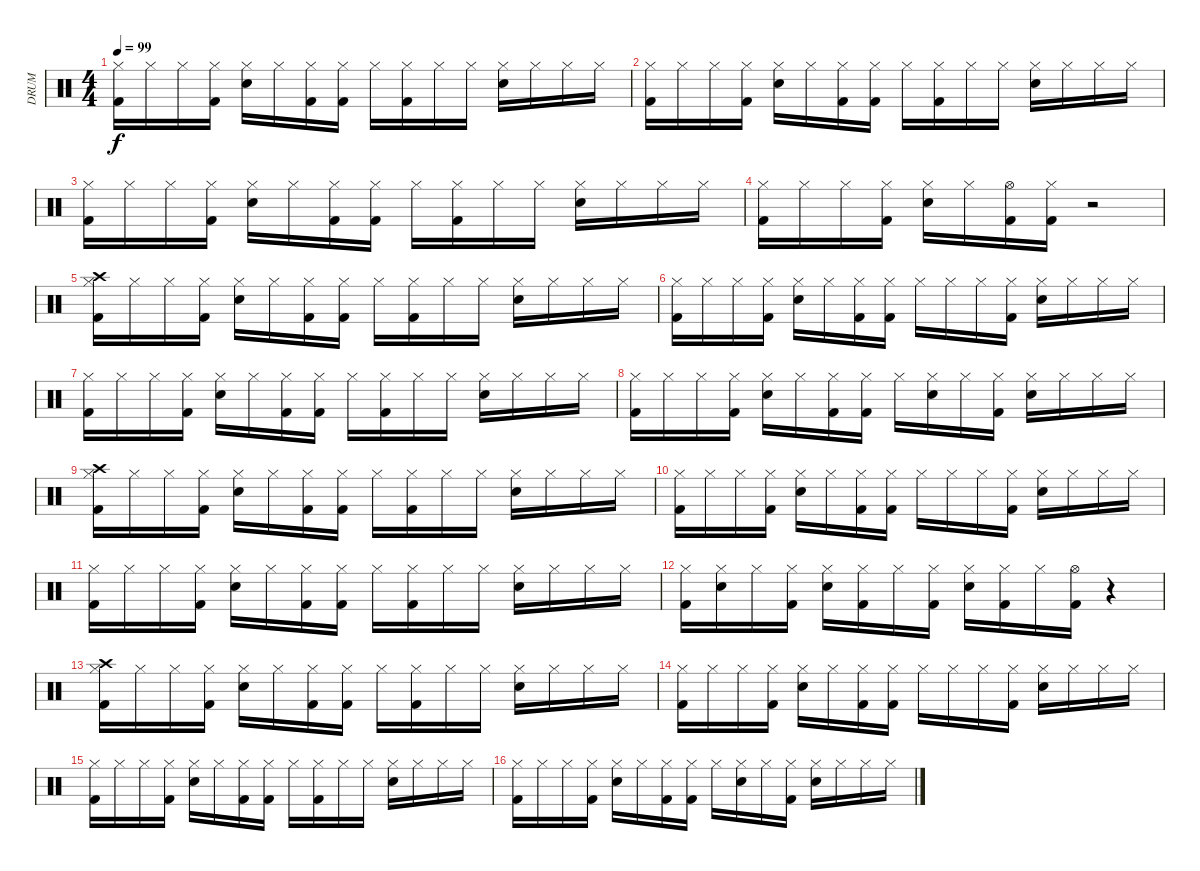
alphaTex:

\track ("DRUM" "DRUM") {instrument percussion}
\staff {score}
\articulation defaults
\ts (4 4)
\tempo 99
\clef neutral
\ks c
("Hi-Hat (closed)" "Kick (hit) 2").16{dy f} "Hi-Hat (closed)".16 "Hi-Hat (closed)".16 ("Hi-Hat (closed)" "Kick (hit) 2").16 ("Hi-Hat (closed)" "Snare (hit) 2").16 "Hi-Hat (closed)".16 ("Hi-Hat (closed)" "Kick (hit) 2").16 ("Hi-Hat (closed)" "Kick (hit) 2").16 "Hi-Hat (closed)".16 ("Hi-Hat (closed)" "Kick (hit) 2").16 "Hi-Hat (closed)".16 "Hi-Hat (closed)".16 ("Hi-Hat (closed)" "Snare (hit) 2").16 "Hi-Hat (closed)".16 "Hi-Hat (closed)".16 "Hi-Hat (closed)".16 |
("Hi-Hat (closed)" "Kick (hit) 2").16 "Hi-Hat (closed)".16 "Hi-Hat (closed)".16 ("Hi-Hat (closed)" "Kick (hit) 2").16 ("Hi-Hat (closed)" "Snare (hit) 2").16 "Hi-Hat (closed)".16 ("Hi-Hat (closed)" "Kick (hit) 2").16 ("Hi-Hat (closed)" "Kick (hit) 2").16 "Hi-Hat (closed)".16 ("Hi-Hat (closed)" "Kick (hit) 2").16 "Hi-Hat (closed)".16 "Hi-Hat (closed)".16 ("Hi-Hat (closed)" "Snare (hit) 2").16 "Hi-Hat (closed)".16 "Hi-Hat (closed)".16 "Hi-Hat (closed)".16 |
("Hi-Hat (closed)" "Kick (hit) 2").16 "Hi-Hat (closed)".16 "Hi-Hat (closed)".16 ("Hi-Hat (closed)" "Kick (hit) 2").16 ("Hi-Hat (closed)" "Snare (hit) 2").16 "Hi-Hat (closed)".16 ("Hi-Hat (closed)" "Kick (hit) 2").16 ("Hi-Hat (closed)" "Kick (hit) 2").16 "Hi-Hat (closed)".16 ("Hi-Hat (closed)" "Kick (hit) 2").16 "Hi-Hat (closed)".16 "Hi-Hat (closed)".16 ("Hi-Hat (closed)" "Snare (hit) 2").16 "Hi-Hat (closed)".16 "Hi-Hat (closed)".16 "Hi-Hat (closed)".16 |
("Hi-Hat (closed)" "Kick (hit) 2").16 "Hi-Hat (closed)".16 "Hi-Hat (closed)".16 ("Hi-Hat (closed)" "Kick (hit) 2").16 ("Hi-Hat (closed)" "Snare (hit) 2").16 "Hi-Hat (closed)".16 ("Hi-Hat (open)" "Kick (hit) 2").16 ("Hi-Hat (closed)" "Kick (hit) 2").16 r.2 |
("Crash high (hit)" "Hi-Hat (closed)" "Kick (hit) 2").16 "Hi-Hat (closed)".16 "Hi-Hat (closed)".16 ("Hi-Hat (closed)" "Kick (hit) 2").16 ("Hi-Hat (closed)" "Snare (hit) 2").16 "Hi-Hat (closed)".16 ("Hi-Hat (closed)" "Kick (hit) 2").16 ("Hi-Hat (closed)" "Kick (hit) 2").16 "Hi-Hat (closed)".16 ("Hi-Hat (closed)" "Kick (hit) 2").16 "Hi-Hat (closed)".16 "Hi-Hat (closed)".16 ("Hi-Hat (closed)" "Snare (hit) 2").16 "Hi-Hat (closed)".16 "Hi-Hat (closed)".16 "Hi-Hat (closed)".16 |
("Hi-Hat (closed)" "Kick (hit) 2").16 "Hi-Hat (closed)".16 "Hi-Hat (closed)".16 ("Hi-Hat (closed)" "Kick (hit) 2").16 ("Hi-Hat (closed)" "Snare (hit) 2").16 "Hi-Hat (closed)".16 ("Hi-Hat (closed)" "Kick (hit) 2").16 ("Hi-Hat (closed)" "Kick (hit) 2").16 "Hi-Hat (closed)".16 "Hi-Hat (closed)".16 "Hi-Hat (closed)".16 ("Hi-Hat (closed)" "Kick (hit) 2").16 ("Hi-Hat (closed)" "Snare (hit) 2").16 "Hi-Hat (closed)".16 "Hi-Hat (closed)".16 "Hi-Hat (closed)".16 |
("Hi-Hat (closed)" "Kick (hit) 2").16 "Hi-Hat (closed)".16 "Hi-Hat (closed)".16 ("Hi-Hat (closed)" "Kick (hit) 2").16 ("Hi-Hat (closed)" "Snare (hit) 2").16 "Hi-Hat (closed)".16 ("Hi-Hat (closed)" "Kick (hit) 2").16 ("Hi-Hat (closed)" "Kick (hit) 2").16 "Hi-Hat (closed)".16 ("Hi-Hat (closed)" "Kick (hit) 2").16 "Hi-Hat (closed)".16 "Hi-Hat (closed)".16 ("Hi-Hat (closed)" "Snare (hit) 2").16 "Hi-Hat (closed)".16 "Hi-Hat (closed)".16 "Hi-Hat (closed)".16 |
("Hi-Hat (closed)" "Kick (hit) 2").16 "Hi-Hat (closed)".16 "Hi-Hat (closed)".16 ("Hi-Hat (closed)" "Kick (hit) 2").16 ("Hi-Hat (closed)" "Snare (hit) 2").16 "Hi-Hat (closed)".16 ("Hi-Hat (closed)" "Kick (hit) 2").16 ("Hi-Hat (closed)" "Kick (hit) 2").16 "Hi-Hat (closed)".16 ("Hi-Hat (closed)" "Snare (hit) 2").16 "Hi-Hat (closed)".16 ("Hi-Hat (closed)" "Kick (hit) 2").16 ("Hi-Hat (closed)" "Snare (hit) 2").16 "Hi-Hat (closed)".16 "Hi-Hat (closed)".16 "Hi-Hat (closed)".16 |
("Crash high (hit)" "Hi-Hat (closed)" "Kick (hit) 2").16 "Hi-Hat (closed)".16 "Hi-Hat (closed)".16 ("Hi-Hat (closed)" "Kick (hit) 2").16 ("Hi-Hat (closed)" "Snare (hit) 2").16 "Hi-Hat (closed)".16 ("Hi-Hat (closed)" "Kick (hit) 2").16 ("Hi-Hat (closed)" "Kick (hit) 2").16 "Hi-Hat (closed)".16 ("Hi-Hat (closed)" "Kick (hit) 2").16 "Hi-Hat (closed)".16 "Hi-Hat (closed)".16 ("Hi-Hat (closed)" "Snare (hit) 2").16 "Hi-Hat (closed)".16 "Hi-Hat (closed)".16 "Hi-Hat (closed)".16 |
("Hi-Hat (closed)" "Kick (hit) 2").16 "Hi-Hat (closed)".16 "Hi-Hat (closed)".16 ("Hi-Hat (closed)" "Kick (hit) 2").16 ("Hi-Hat (closed)" "Snare (hit) 2").16 "Hi-Hat (closed)".16 ("Hi-Hat (closed)" "Kick (hit) 2").16 ("Hi-Hat (closed)" "Kick (hit) 2").16 "Hi-Hat (closed)".16 "Hi-Hat (closed)".16 "Hi-Hat (closed)".16 ("Hi-Hat (closed)" "Kick (hit) 2").16 ("Hi-Hat (closed)" "Snare (hit) 2").16 "Hi-Hat (closed)".16 "Hi-Hat (closed)".16 "Hi-Hat (closed)".16 |
("Hi-Hat (closed)" "Kick (hit) 2").16 "Hi-Hat (closed)".16 "Hi-Hat (closed)".16 ("Hi-Hat (closed)" "Kick (hit) 2").16 ("Hi-Hat (closed)" "Snare (hit) 2").16 "Hi-Hat (closed)".16 ("Hi-Hat (closed)" "Kick (hit) 2").16 ("Hi-Hat (closed)" "Kick (hit) 2").16 "Hi-Hat (closed)".16 ("Hi-Hat (closed)" "Kick (hit) 2").16 "Hi-Hat (closed)".16 "Hi-Hat (closed)".16 ("Hi-Hat (closed)" "Snare (hit) 2").16 "Hi-Hat (closed)".16 "Hi-Hat (closed)".16 "Hi-Hat (closed)".16 |
("Hi-Hat (closed)" "Kick (hit) 2").16 ("Hi-Hat (closed)" "Snare (hit) 2").16 "Hi-Hat (closed)".16 ("Hi-Hat (closed)" "Kick (hit) 2").16 ("Hi-Hat (closed)" "Snare (hit) 2").16 ("Hi-Hat (closed)" "Kick (hit) 2").16 "Hi-Hat (closed)".16 ("Hi-Hat (closed)" "Kick (hit) 2").16 ("Hi-Hat (closed)" "Snare (hit) 2").16 ("Hi-Hat (closed)" "Kick (hit) 2").16 "Hi-Hat (closed)".16 ("Hi-Hat (open)" "Kick (hit) 2").16 r.4{volume 0} |
("Crash high (hit)" "Hi-Hat (closed)" "Kick (hit) 2").16{volume 16} "Hi-Hat (closed)".16 "Hi-Hat (closed)".16 ("Hi-Hat (closed)" "Kick (hit) 2").16 ("Hi-Hat (closed)" "Snare (hit) 2").16 "Hi-Hat (closed)".16 ("Hi-Hat (closed)" "Kick (hit) 2").16 ("Hi-Hat (closed)" "Kick (hit) 2").16 "Hi-Hat (closed)".16 ("Hi-Hat (closed)" "Kick (hit) 2").16 "Hi-Hat (closed)".16 "Hi-Hat (closed)".16 ("Hi-Hat (closed)" "Snare (hit) 2").16 "Hi-Hat (closed)".16 "Hi-Hat (closed)".16 "Hi-Hat (closed)".16 |
("Hi-Hat (closed)" "Kick (hit) 2").16 "Hi-Hat (closed)".16 "Hi-Hat (closed)".16 ("Hi-Hat (closed)" "Kick (hit) 2").16 ("Hi-Hat (closed)" "Snare (hit) 2").16 "Hi-Hat (closed)".16 ("Hi-Hat (closed)" "Kick (hit) 2").16 ("Hi-Hat (closed)" "Kick (hit) 2").16 "Hi-Hat (closed)".16 "Hi-Hat (closed)".16 "Hi-Hat (closed)".16 ("Hi-Hat (closed)" "Kick (hit) 2").16 ("Hi-Hat (closed)" "Snare (hit) 2").16 "Hi-Hat (closed)".16 "Hi-Hat (closed)".16 "Hi-Hat (closed)".16 |
("Hi-Hat (closed)" "Kick (hit) 2").16 "Hi-Hat (closed)".16 "Hi-Hat (closed)".16 ("Hi-Hat (closed)" "Kick (hit) 2").16 ("Hi-Hat (closed)" "Snare (hit) 2").16 "Hi-Hat (closed)".16 ("Hi-Hat (closed)" "Kick (hit) 2").16 ("Hi-Hat (closed)" "Kick (hit) 2").16 "Hi-Hat (closed)".16 ("Hi-Hat (closed)" "Kick (hit) 2").16 "Hi-Hat (closed)".16 "Hi-Hat (closed)".16 ("Hi-Hat (closed)" "Snare (hit) 2").16 "Hi-Hat (closed)".16 "Hi-Hat (closed)".16 "Hi-Hat (closed)".16 |
("Hi-Hat (closed)" "Kick (hit) 2").16 "Hi-Hat (closed)".16 "Hi-Hat (closed)".16 ("Hi-Hat (closed)" "Kick (hit) 2").16 ("Hi-Hat (closed)" "Snare (hit) 2").16 "Hi-Hat (closed)".16 ("Hi-Hat (closed)" "Kick (hit) 2").16 ("Hi-Hat (closed)" "Kick (hit) 2").16 "Hi-Hat (closed)".16 ("Hi-Hat (closed)" "Snare (hit) 2").16 "Hi-Hat (closed)".16 ("Hi-Hat (closed)" "Kick (hit) 2").16 ("Hi-Hat (closed)" "Snare (hit) 2").16 "Hi-Hat (closed)".16 "Hi-Hat (closed)".16 "Hi-Hat (closed)".16
